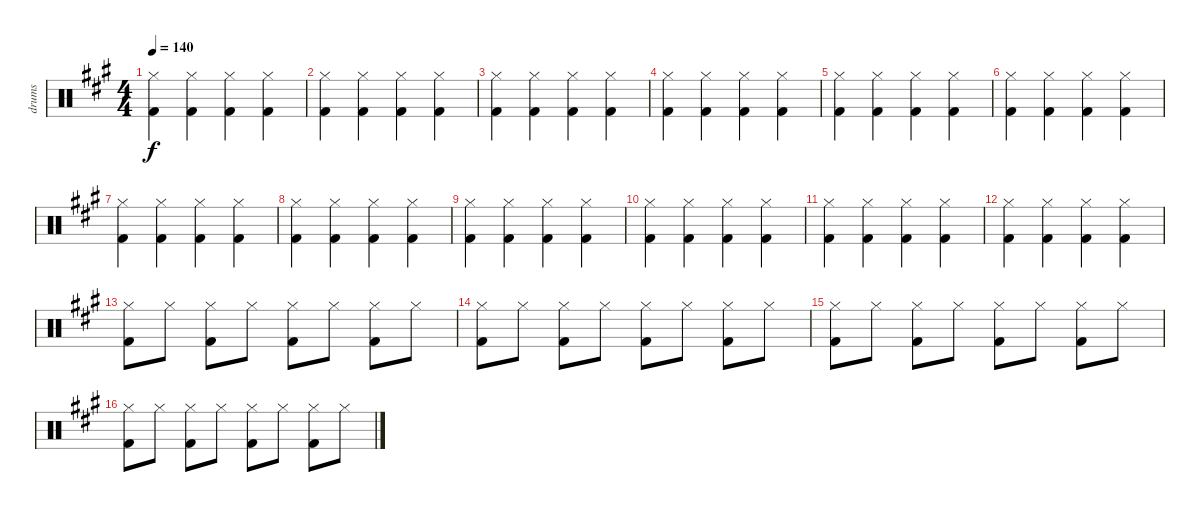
\track ("drums" "drums") {instrument percussion}
\staff {score}
\articulation defaults
\ts (4 4)
\tempo 140
\clef neutral
\ks f#minor
("Hi-Hat (closed)" "Kick (hit) 2").4{dy f} ("Hi-Hat (closed)" "Kick (hit) 2").4 ("Hi-Hat (closed)" "Kick (hit) 2").4 ("Hi-Hat (closed)" "Kick (hit) 2").4 |
("Hi-Hat (closed)" "Kick (hit) 2").4 ("Hi-Hat (closed)" "Kick (hit) 2").4 ("Hi-Hat (closed)" "Kick (hit) 2").4 ("Hi-Hat (closed)" "Kick (hit) 2").4 |
("Hi-Hat (closed)" "Kick (hit) 2").4 ("Hi-Hat (closed)" "Kick (hit) 2").4 ("Hi-Hat (closed)" "Kick (hit) 2").4 ("Hi-Hat (closed)" "Kick (hit) 2").4 |
("Hi-Hat (closed)" "Kick (hit) 2").4 ("Hi-Hat (closed)" "Kick (hit) 2").4 ("Hi-Hat (closed)" "Kick (hit) 2").4 ("Hi-Hat (closed)" "Kick (hit) 2").4 |
("Hi-Hat (closed)" "Kick (hit) 2").4 ("Hi-Hat (closed)" "Kick (hit) 2").4 ("Hi-Hat (closed)" "Kick (hit) 2").4 ("Hi-Hat (closed)" "Kick (hit) 2").4 |
("Hi-Hat (closed)" "Kick (hit) 2").4 ("Hi-Hat (closed)" "Kick (hit) 2").4 ("Hi-Hat (closed)" "Kick (hit) 2").4 ("Hi-Hat (closed)" "Kick (hit) 2").4 |
("Hi-Hat (closed)" "Kick (hit) 2").4 ("Hi-Hat (closed)" "Kick (hit) 2").4 ("Hi-Hat (closed)" "Kick (hit) 2").4 ("Hi-Hat (closed)" "Kick (hit) 2").4 |
("Hi-Hat (closed)" "Kick (hit) 2").4 ("Hi-Hat (closed)" "Kick (hit) 2").4 ("Hi-Hat (closed)" "Kick (hit) 2").4 ("Hi-Hat (closed)" "Kick (hit) 2").4 |
("Hi-Hat (closed)" "Kick (hit) 2").4 ("Hi-Hat (closed)" "Kick (hit) 2").4 ("Hi-Hat (closed)" "Kick (hit) 2").4 ("Hi-Hat (closed)" "Kick (hit) 2").4 |
("Hi-Hat (closed)" "Kick (hit) 2").4 ("Hi-Hat (closed)" "Kick (hit) 2").4 ("Hi-Hat (closed)" "Kick (hit) 2").4 ("Hi-Hat (closed)" "Kick (hit) 2").4 |
("Hi-Hat (closed)" "Kick (hit) 2").4 ("Hi-Hat (closed)" "Kick (hit) 2").4 ("Hi-Hat (closed)" "Kick (hit) 2").4 ("Hi-Hat (closed)" "Kick (hit) 2").4 |
("Hi-Hat (closed)" "Kick (hit) 2").4 ("Hi-Hat (closed)" "Kick (hit) 2").4 ("Hi-Hat (closed)" "Kick (hit) 2").4 ("Hi-Hat (closed)" "Kick (hit) 2").4 |
("Hi-Hat (closed)" "Kick (hit) 2").8 "Hi-Hat (closed)".8 ("Hi-Hat (closed)" "Kick (hit) 2").8 "Hi-Hat (closed)".8 ("Hi-Hat (closed)" "Kick (hit) 2").8 "Hi-Hat (closed)".8 ("Hi-Hat (closed)" "Kick (hit) 2").8 "Hi-Hat (closed)".8 |
("Hi-Hat (closed)" "Kick (hit) 2").8 "Hi-Hat (closed)".8 ("Hi-Hat (closed)" "Kick (hit) 2").8 "Hi-Hat (closed)".8 ("Hi-Hat (closed)" "Kick (hit) 2").8 "Hi-Hat (closed)".8 ("Hi-Hat (closed)" "Kick (hit) 2").8 "Hi-Hat (closed)".8 |
("Hi-Hat (closed)" "Kick (hit) 2").8 "Hi-Hat (closed)".8 ("Hi-Hat (closed)" "Kick (hit) 2").8 "Hi-Hat (closed)".8 ("Hi-Hat (closed)" "Kick (hit) 2").8 "Hi-Hat (closed)".8 ("Hi-Hat (closed)" "Kick (hit) 2").8 "Hi-Hat (closed)".8 |
("Hi-Hat (closed)" "Kick (hit) 2").8 "Hi-Hat (closed)".8 ("Hi-Hat (closed)" "Kick (hit) 2").8 "Hi-Hat (closed)".8 ("Hi-Hat (closed)" "Kick (hit) 2").8 "Hi-Hat (closed)".8 ("Hi-Hat (closed)" "Kick (hit) 2").8 "Hi-Hat (closed)".8
